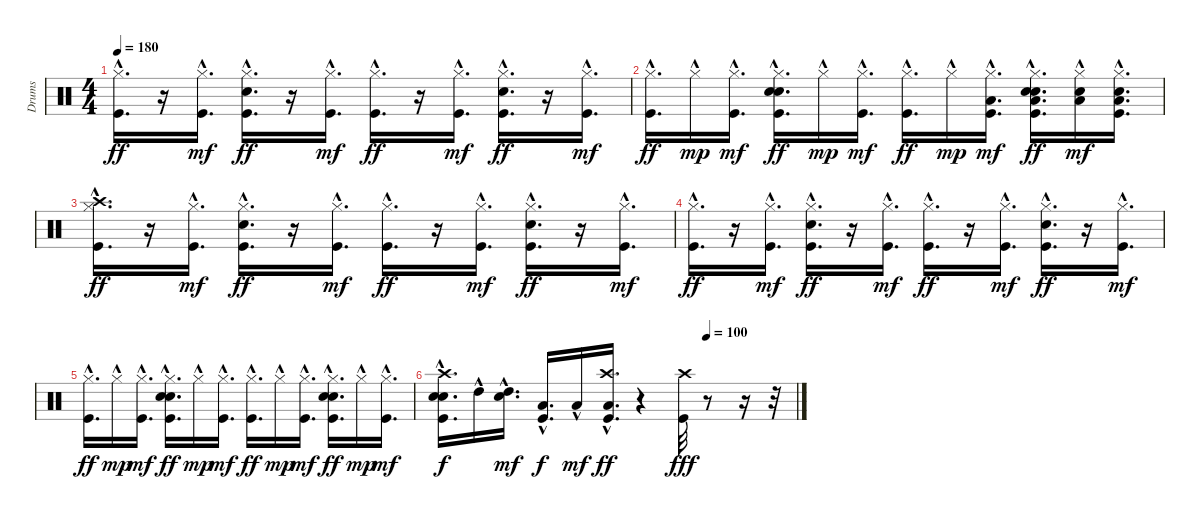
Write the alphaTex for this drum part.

\track ("Drums" "Drums") {instrument percussion}
\staff {score}
\articulation defaults
\ts (4 4)
\tempo 180
\clef neutral
\ks c
("Kick (hit)"{hac} "Hi-Hat (closed)"{hac}).16{d dy ff} r.16 ("Hi-Hat (closed)"{hac} "Kick (hit)"{hac}).16{d dy mf} ("Hi-Hat (closed)"{hac} "Snare (hit) 2"{hac} "Kick (hit)"{hac}).16{d dy ff} r.16 ("Kick (hit)"{hac} "Hi-Hat (closed)"{hac}).16{d dy mf} ("Kick (hit)"{hac} "Hi-Hat (closed)"{hac}).16{d dy ff} r.16 ("Kick (hit)"{hac} "Hi-Hat (closed)"{hac}).16{d dy mf} ("Kick (hit)"{hac} "Snare (hit) 2"{hac} "Hi-Hat (closed)"{hac}).16{d dy ff} r.16 ("Kick (hit)"{hac} "Hi-Hat (closed)"{hac}).16{d dy mf} |
("Kick (hit)"{hac} "Hi-Hat (closed)"{hac}).16{d dy ff} "Hi-Hat (closed)"{hac}.16{dy mp} ("Hi-Hat (closed)"{hac} "Kick (hit)"{hac}).16{d dy mf} ("Hi-Hat (closed)"{hac} "Hand Clap (hit)"{hac} "Kick (hit)"{hac} "Snare (hit) 2"{hac}).16{d dy ff} "Hi-Hat (closed)"{hac}.16{dy mp} ("Kick (hit)"{hac} "Hi-Hat (closed)"{hac}).16{d dy mf} ("Kick (hit)"{hac} "Hi-Hat (closed)"{hac}).16{d dy ff} "Hi-Hat (closed)"{hac}.16{dy mp} ("Low Tom (hit)"{hac} "Hi-Hat (closed)"{hac} "Kick (hit)"{hac}).16{d dy mf} ("Kick (hit)"{hac} "Hand Clap (hit)"{hac} "Hi-Hat (closed)"{hac} "Snare (hit) 2"{hac} "Low Tom (hit)"{hac}).16{d dy ff} ("Snare (hit) 2"{hac} "Hi-Hat (closed)"{hac} "Low Tom (hit)"{hac}).16{dy mf} ("Kick (hit)"{hac} "Snare (hit) 2"{hac} "Hi-Hat (closed)"{hac} "Low Tom (hit)"{hac}).16{d} |
("Crash high (hit)"{hac} "Hi-Hat (closed)"{hac} "Kick (hit)"{hac}).16{d dy ff} r.16 ("Kick (hit)"{hac} "Hi-Hat (closed)"{hac}).16{d dy mf} ("Hi-Hat (closed)"{hac} "Snare (hit) 2"{hac} "Kick (hit)"{hac}).16{d dy ff} r.16 ("Kick (hit)"{hac} "Hi-Hat (closed)"{hac}).16{d dy mf} ("Hi-Hat (closed)"{hac} "Kick (hit)"{hac}).16{d dy ff} r.16 ("Kick (hit)"{hac} "Hi-Hat (closed)"{hac}).16{d dy mf} ("Hi-Hat (closed)"{hac} "Snare (hit) 2"{hac} "Kick (hit)"{hac}).16{d dy ff} r.16 ("Kick (hit)"{hac} "Hi-Hat (closed)"{hac}).16{d dy mf} |
("Hi-Hat (closed)"{hac} "Kick (hit)"{hac}).16{d dy ff} r.16 ("Hi-Hat (closed)"{hac} "Kick (hit)"{hac}).16{d dy mf} ("Hi-Hat (closed)"{hac} "Snare (hit) 2"{hac} "Kick (hit)"{hac}).16{d dy ff} r.16 ("Kick (hit)"{hac} "Hi-Hat (closed)"{hac}).16{d dy mf} ("Kick (hit)"{hac} "Hi-Hat (closed)"{hac}).16{d dy ff} r.16 ("Hi-Hat (closed)"{hac} "Kick (hit)"{hac}).16{d dy mf} ("Hi-Hat (closed)"{hac} "Snare (hit) 2"{hac} "Kick (hit)"{hac}).16{d dy ff} r.16 ("Kick (hit)"{hac} "Hi-Hat (closed)"{hac}).16{d dy mf} |
("Kick (hit)"{hac} "Hi-Hat (closed)"{hac}).16{d dy ff} "Hi-Hat (closed)"{hac}.16{dy mp} ("Hi-Hat (closed)"{hac} "Kick (hit)"{hac}).16{d dy mf} ("Hi-Hat (closed)"{hac} "Hand Clap (hit)"{hac} "Kick (hit)"{hac} "Snare (hit) 2"{hac}).16{d dy ff} "Hi-Hat (closed)"{hac}.16{dy mp} ("Kick (hit)"{hac} "Hi-Hat (closed)"{hac}).16{d dy mf} ("Hi-Hat (closed)"{hac} "Kick (hit)"{hac}).16{d dy ff} "Hi-Hat (closed)"{hac}.16{dy mp} ("Kick (hit)"{hac} "Hi-Hat (closed)"{hac}).16{d dy mf} ("Kick (hit)"{hac} "Hand Clap (hit)"{hac} "Hi-Hat (closed)"{hac} "Snare (hit) 2"{hac}).16{d dy ff} "Hi-Hat (closed)"{hac}.16{dy mp} ("Hi-Hat (closed)"{hac} "Kick (hit)"{hac}).16{d dy mf} |
\tempo (100 0.75)
("Crash high (hit)"{hac} "Hand Clap (hit)"{hac} "Kick (hit)"{hac} "Snare (hit) 2"{hac}).16{d dy f} "High Tom (hit)"{hac}.16 ("Snare (hit) 2"{hac} "High Tom (hit)"{hac}).16{d dy mf} ("Low Tom (hit)"{hac} "Kick (hit)"{hac}).16{d dy f} "Low Tom (hit)"{hac}.16{dy mf} ("Low Floor Tom (hit)"{hac} "Crash high (hit)"{hac} "Kick (hit)"{hac}).16{d dy ff} r.4 ("Kick (hit)" "Crash high (hit)").32{dy fff} r.8 r.16 r.32
